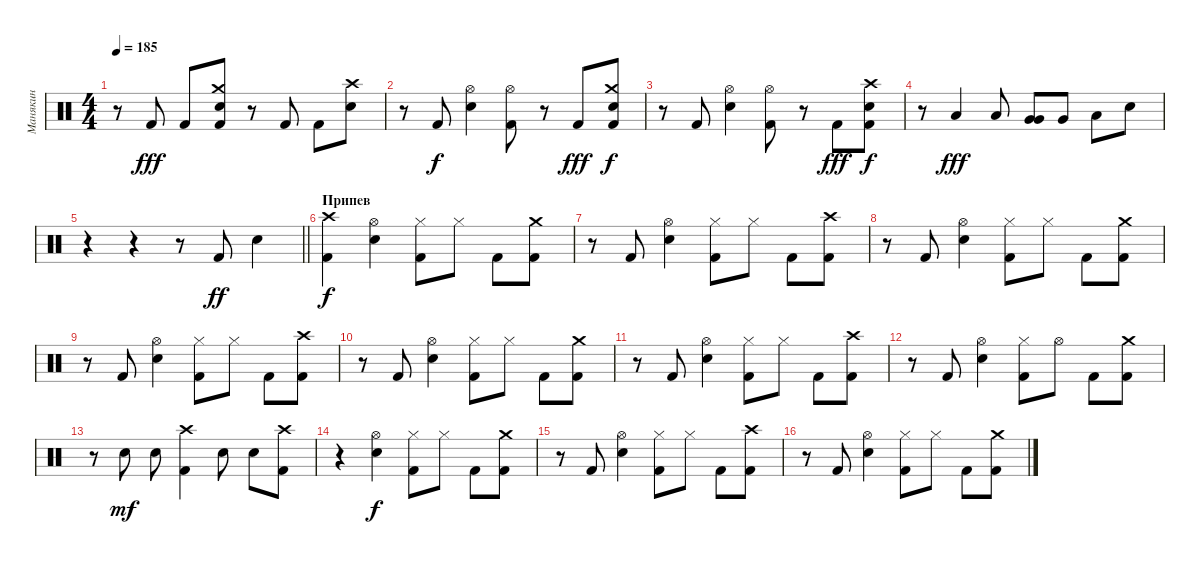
\track ("Манякин" "Манякин") {instrument percussion}
\staff {score}
\articulation defaults
\ts (4 4)
\tempo 185
\clef neutral
\ks c
r.8{dy f} "Kick (hit) 2".8{dy fff} "Kick (hit) 2".8 ("Crash medium (hit)" "Electric Snare (hit)" "Kick (hit) 2").8 r.8 "Kick (hit) 2".8 "Kick (hit) 2".8 ("Crash high (hit)" "Electric Snare (hit)").8 |
r.8 "Kick (hit) 2".8{dy f} ("Hi-Hat (open)" "Electric Snare (hit)").4 ("Hi-Hat (open)" "Kick (hit) 2").8 r.8 "Kick (hit) 2".8{dy fff} ("Crash medium (hit)" "Electric Snare (hit)" "Kick (hit) 2").8{dy f} |
r.8 "Kick (hit) 2".8 ("Hi-Hat (open)" "Electric Snare (hit)").4 ("Hi-Hat (open)" "Kick (hit) 2").8 r.8 "Kick (hit) 2".8{dy fff} ("Crash high (hit)" "Electric Snare (hit)" "Kick (hit) 2").8{dy f} |
r.8 "Low Tom (hit)".4{dy fff} "Low Tom (hit)".8 ("Very Low Tom (hit)" "Very Low Tom (hit)").8 "Very Low Tom (hit)".8 "Low Floor Tom (hit)".8 "Electric Snare (hit)".8 |
\barLineRight lightlight
r.4 r.4 r.8 "Kick (hit) 2".8{dy ff} "Electric Snare (hit)".4 |
\section ("" "Припев")
("Crash high (hit)" "Kick (hit) 2").4{dy f} ("Hi-Hat (open)" "Electric Snare (hit)").4 ("Hi-Hat (closed)" "Kick (hit) 2").8 "Hi-Hat (closed)".8 "Kick (hit) 2".8 ("Crash medium (hit)" "Kick (hit) 2").8 |
r.8 "Kick (hit) 2".8 ("Hi-Hat (open)" "Electric Snare (hit)").4 ("Hi-Hat (closed)" "Kick (hit) 2").8 "Hi-Hat (closed)".8 "Kick (hit) 2".8 ("Crash high (hit)" "Kick (hit) 2").8 |
r.8 "Kick (hit) 2".8 ("Hi-Hat (open)" "Electric Snare (hit)").4 ("Hi-Hat (closed)" "Kick (hit) 2").8 "Hi-Hat (closed)".8 "Kick (hit) 2".8 ("Crash medium (hit)" "Kick (hit) 2").8 |
r.8 "Kick (hit) 2".8 ("Hi-Hat (open)" "Electric Snare (hit)").4 ("Hi-Hat (closed)" "Kick (hit) 2").8 "Hi-Hat (closed)".8 "Kick (hit) 2".8 ("Crash high (hit)" "Kick (hit) 2").8 |
r.8 "Kick (hit) 2".8 ("Hi-Hat (open)" "Electric Snare (hit)").4 ("Hi-Hat (closed)" "Kick (hit) 2").8 "Hi-Hat (closed)".8 "Kick (hit) 2".8 ("Crash medium (hit)" "Kick (hit) 2").8 |
r.8 "Kick (hit) 2".8 ("Hi-Hat (open)" "Electric Snare (hit)").4 ("Hi-Hat (closed)" "Kick (hit) 2").8 "Hi-Hat (closed)".8 "Kick (hit) 2".8 ("Crash high (hit)" "Kick (hit) 2").8 |
r.8 "Kick (hit) 2".8 ("Hi-Hat (open)" "Electric Snare (hit)").4 ("Hi-Hat (closed)" "Kick (hit) 2").8 "Hi-Hat (open)".8 "Kick (hit) 2".8 ("Crash medium (hit)" "Kick (hit) 2").8 |
r.8 "Electric Snare (hit)".8{dy mf} "Electric Snare (hit)".8 ("Crash high (hit)" "Kick (hit) 2").4 "Electric Snare (hit)".8 "Electric Snare (hit)".8 ("Crash high (hit)" "Kick (hit) 2").8 |
r.4 ("Hi-Hat (open)" "Electric Snare (hit)").4{dy f} ("Hi-Hat (closed)" "Kick (hit) 2").8 "Hi-Hat (closed)".8 "Kick (hit) 2".8 ("Crash medium (hit)" "Kick (hit) 2").8 |
r.8 "Kick (hit) 2".8 ("Hi-Hat (open)" "Electric Snare (hit)").4 ("Hi-Hat (closed)" "Kick (hit) 2").8 "Hi-Hat (closed)".8 "Kick (hit) 2".8 ("Crash high (hit)" "Kick (hit) 2").8 |
r.8 "Kick (hit) 2".8 ("Hi-Hat (open)" "Electric Snare (hit)").4 ("Hi-Hat (closed)" "Kick (hit) 2").8 "Hi-Hat (closed)".8 "Kick (hit) 2".8 ("Crash medium (hit)" "Kick (hit) 2").8
